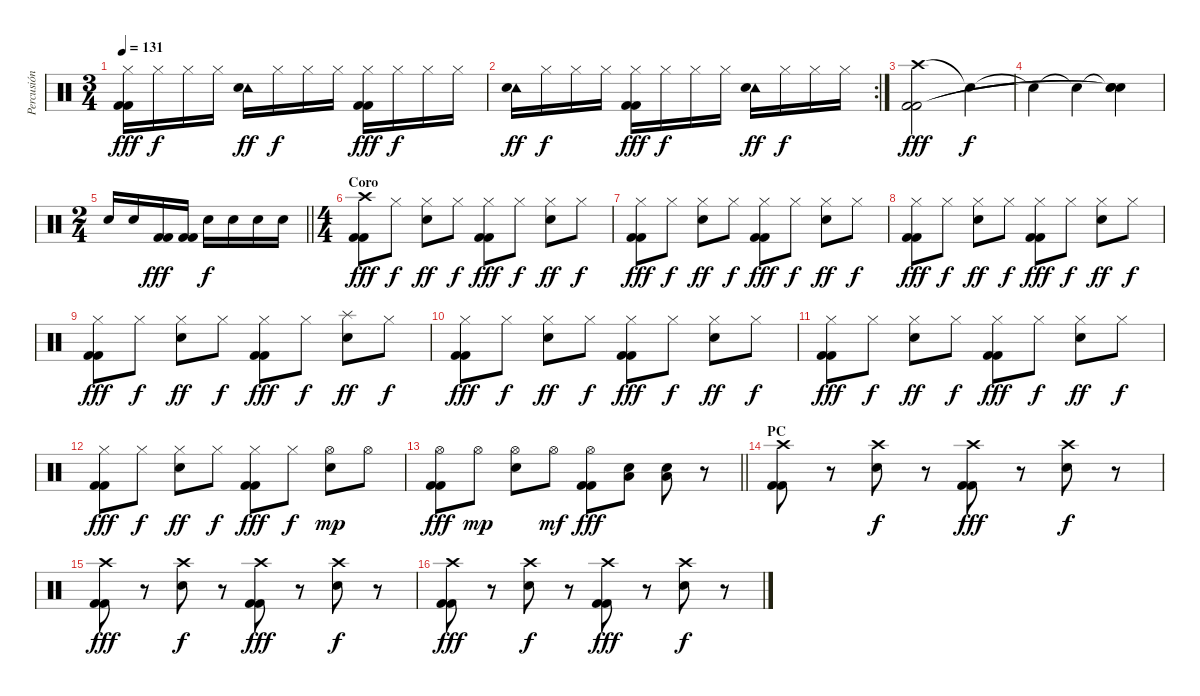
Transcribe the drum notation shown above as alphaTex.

\track ("Percusión" "Percusión") {instrument percussion}
\staff {score}
\articulation defaults
\ts (3 4)
\tempo 131
\clef neutral
\ks c
("Hi-Hat (closed)" "Kick (hit) 2" "Kick (hit) 2").16{dy fff} "Hi-Hat (closed)".16{dy f} "Hi-Hat (closed)".16 "Hi-Hat (closed)".16 ("Tambourine (hit)" "Electric Snare (hit)").16{dy ff} "Hi-Hat (closed)".16{dy f} "Hi-Hat (closed)".16 "Hi-Hat (closed)".16 ("Hi-Hat (closed)" "Kick (hit) 2" "Kick (hit) 2").16{dy fff} "Hi-Hat (closed)".16{dy f} "Hi-Hat (closed)".16 "Hi-Hat (closed)".16 |
\rc 2
("Tambourine (hit)" "Electric Snare (hit)").16{dy ff} "Hi-Hat (closed)".16{dy f} "Hi-Hat (closed)".16 "Hi-Hat (closed)".16 ("Hi-Hat (closed)" "Kick (hit) 2" "Kick (hit) 2").16{dy fff} "Hi-Hat (closed)".16{dy f} "Hi-Hat (closed)".16 "Hi-Hat (closed)".16 ("Tambourine (hit)" "Electric Snare (hit)").16{dy ff} "Hi-Hat (closed)".16{dy f} "Hi-Hat (closed)".16 "Hi-Hat (closed)".16 |
("Crash high (hit)" "Kick (hit) 2" "Kick (hit) 2").2{dy fff} "Snare (hit)"{t}.4{dy f} |
"Snare (hit)"{t}.4 "Snare (hit)"{t}.4 ("Snare (hit)"{t} "Snare (hit)"{t} "Snare (hit)"{t}).4 |
\ts (2 4)
\barLineRight lightlight "Electric Snare (hit)".16 "Electric Snare (hit)".16
("Kick (hit) 2" "Kick (hit) 2").16{dy fff} ("Kick (hit) 2" "Kick (hit) 2").16 "Electric Snare (hit)".16{dy f} "Electric Snare (hit)".16 "Electric Snare (hit)".16 "Electric Snare (hit)".16 |
\ts (4 4)
\section ("" "Coro")
("Crash high (hit)" "Kick (hit) 2" "Kick (hit) 2").8{dy fff} "Hi-Hat (closed)".8{dy f} ("Hi-Hat (closed)" "Electric Snare (hit)").8{dy ff} "Hi-Hat (closed)".8{dy f} ("Hi-Hat (closed)" "Kick (hit) 2" "Kick (hit) 2").8{dy fff} "Hi-Hat (closed)".8{dy f} ("Hi-Hat (closed)" "Electric Snare (hit)").8{dy ff} "Hi-Hat (closed)".8{dy f} |
("Hi-Hat (closed)" "Kick (hit) 2" "Kick (hit) 2").8{dy fff} "Hi-Hat (closed)".8{dy f} ("Hi-Hat (closed)" "Electric Snare (hit)").8{dy ff} "Hi-Hat (closed)".8{dy f} ("Hi-Hat (closed)" "Kick (hit) 2" "Kick (hit) 2").8{dy fff} "Hi-Hat (closed)".8{dy f} ("Hi-Hat (closed)" "Electric Snare (hit)").8{dy ff} "Hi-Hat (closed)".8{dy f} |
("Hi-Hat (closed)" "Kick (hit) 2" "Kick (hit) 2").8{dy fff} "Hi-Hat (closed)".8{dy f} ("Hi-Hat (closed)" "Electric Snare (hit)").8{dy ff} "Hi-Hat (closed)".8{dy f} ("Hi-Hat (closed)" "Kick (hit) 2" "Kick (hit) 2").8{dy fff} "Hi-Hat (closed)".8{dy f} ("Hi-Hat (closed)" "Electric Snare (hit)").8{dy ff} "Hi-Hat (closed)".8{dy f} |
("Hi-Hat (closed)" "Kick (hit) 2" "Kick (hit) 2").8{dy fff} "Hi-Hat (closed)".8{dy f} ("Hi-Hat (closed)" "Electric Snare (hit)").8{dy ff} "Hi-Hat (closed)".8{dy f} ("Hi-Hat (closed)" "Kick (hit) 2" "Kick (hit) 2").8{dy fff} "Hi-Hat (closed)".8{dy f} ("Splash (hit)" "Electric Snare (hit)").8{dy ff} "Hi-Hat (closed)".8{dy f} |
("Hi-Hat (closed)" "Kick (hit) 2" "Kick (hit) 2").8{dy fff} "Hi-Hat (closed)".8{dy f} ("Hi-Hat (closed)" "Electric Snare (hit)").8{dy ff} "Hi-Hat (closed)".8{dy f} ("Hi-Hat (closed)" "Kick (hit) 2" "Kick (hit) 2").8{dy fff} "Hi-Hat (closed)".8{dy f} ("Hi-Hat (closed)" "Electric Snare (hit)").8{dy ff} "Hi-Hat (closed)".8{dy f} |
("Hi-Hat (closed)" "Kick (hit) 2" "Kick (hit) 2").8{dy fff} "Hi-Hat (closed)".8{dy f} ("Hi-Hat (closed)" "Electric Snare (hit)").8{dy ff} "Hi-Hat (closed)".8{dy f} ("Hi-Hat (closed)" "Kick (hit) 2" "Kick (hit) 2").8{dy fff} "Hi-Hat (closed)".8{dy f} ("Hi-Hat (closed)" "Electric Snare (hit)").8{dy ff} "Hi-Hat (closed)".8{dy f} |
("Hi-Hat (closed)" "Kick (hit) 2" "Kick (hit) 2").8{dy fff} "Hi-Hat (closed)".8{dy f} ("Hi-Hat (closed)" "Electric Snare (hit)").8{dy ff} "Hi-Hat (closed)".8{dy f} ("Hi-Hat (closed)" "Kick (hit) 2" "Kick (hit) 2").8{dy fff} "Hi-Hat (closed)".8{dy f} ("Hi-Hat (open)" "Electric Snare (hit)").8{dy mp} "Hi-Hat (open)".8 |
\barLineRight lightlight
("Hi-Hat (open)" "Kick (hit) 2" "Kick (hit) 2").8{dy fff} "Hi-Hat (open)".8{dy mp} ("Hi-Hat (open)" "Electric Snare (hit)").8 "Hi-Hat (open)".8{dy mf} ("Hi-Hat (open)" "Kick (hit) 2" "Kick (hit) 2").8{dy fff} ("Low Floor Tom (hit)" "Electric Snare (hit)").8 ("Low Floor Tom (hit)" "Electric Snare (hit)").8 r.8 |
\section ("" "PC")
("Crash high (hit)" "Kick (hit) 2" "Kick (hit) 2").8 r.8 ("Crash high (hit)" "Electric Snare (hit)").8{dy f} r.8 ("Crash high (hit)" "Kick (hit) 2" "Kick (hit) 2").8{dy fff} r.8 ("Crash high (hit)" "Electric Snare (hit)").8{dy f} r.8 |
("Crash high (hit)" "Kick (hit) 2" "Kick (hit) 2").8{dy fff} r.8 ("Crash high (hit)" "Electric Snare (hit)").8{dy f} r.8 ("Crash high (hit)" "Kick (hit) 2" "Kick (hit) 2").8{dy fff} r.8 ("Crash high (hit)" "Electric Snare (hit)").8{dy f} r.8 |
("Crash high (hit)" "Kick (hit) 2" "Kick (hit) 2").8{dy fff} r.8 ("Crash high (hit)" "Electric Snare (hit)").8{dy f} r.8 ("Crash high (hit)" "Kick (hit) 2" "Kick (hit) 2").8{dy fff} r.8 ("Crash high (hit)" "Electric Snare (hit)").8{dy f} r.8
